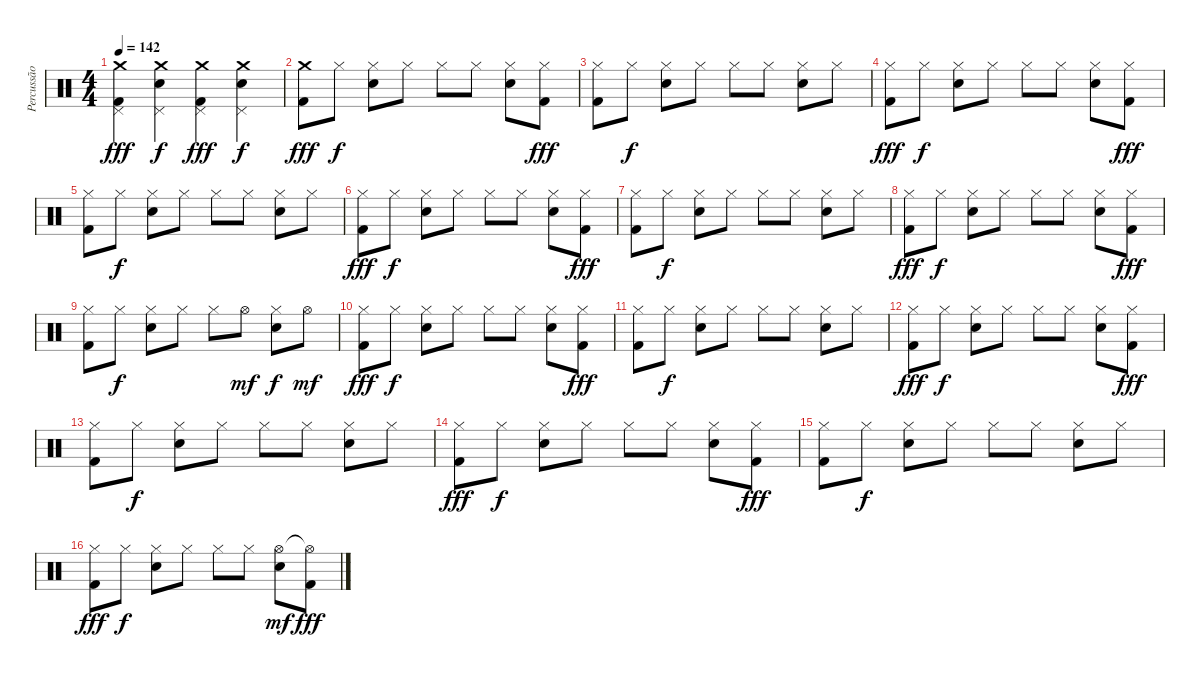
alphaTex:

\track ("Percussão" "Percussão") {instrument percussion}
\staff {score}
\articulation defaults
\ts (4 4)
\tempo 142
\clef neutral
\ks c
("Crash medium (hit)" "Pedal Hi-Hat (hit)" "Kick (hit) 2").4{dy fff} ("Crash medium (hit)" "Pedal Hi-Hat (hit)" "Electric Snare (hit)").4{dy f} ("Crash medium (hit)" "Pedal Hi-Hat (hit)" "Kick (hit) 2").4{dy fff} ("Crash medium (hit)" "Pedal Hi-Hat (hit)" "Electric Snare (hit)").4{dy f} |
("Crash medium (hit)" "Kick (hit) 2").8{dy fff} "Hi-Hat (closed)".8{dy f} ("Hi-Hat (closed)" "Electric Snare (hit)").8 "Hi-Hat (closed)".8 "Hi-Hat (closed)".8 "Hi-Hat (closed)".8 ("Hi-Hat (closed)" "Electric Snare (hit)").8 ("Hi-Hat (closed)" "Kick (hit) 2").8{dy fff} |
("Hi-Hat (closed)" "Kick (hit) 2").8 "Hi-Hat (closed)".8{dy f} ("Hi-Hat (closed)" "Electric Snare (hit)").8 "Hi-Hat (closed)".8 "Hi-Hat (closed)".8 "Hi-Hat (closed)".8 ("Hi-Hat (closed)" "Electric Snare (hit)").8 "Hi-Hat (closed)".8 |
("Hi-Hat (closed)" "Kick (hit) 2").8{dy fff} "Hi-Hat (closed)".8{dy f} ("Hi-Hat (closed)" "Electric Snare (hit)").8 "Hi-Hat (closed)".8 "Hi-Hat (closed)".8 "Hi-Hat (closed)".8 ("Hi-Hat (closed)" "Electric Snare (hit)").8 ("Hi-Hat (closed)" "Kick (hit) 2").8{dy fff} |
("Hi-Hat (closed)" "Kick (hit) 2").8 "Hi-Hat (closed)".8{dy f} ("Hi-Hat (closed)" "Electric Snare (hit)").8 "Hi-Hat (closed)".8 "Hi-Hat (closed)".8 "Hi-Hat (closed)".8 ("Hi-Hat (closed)" "Electric Snare (hit)").8 "Hi-Hat (closed)".8 |
("Hi-Hat (closed)" "Kick (hit) 2").8{dy fff} "Hi-Hat (closed)".8{dy f} ("Hi-Hat (closed)" "Electric Snare (hit)").8 "Hi-Hat (closed)".8 "Hi-Hat (closed)".8 "Hi-Hat (closed)".8 ("Hi-Hat (closed)" "Electric Snare (hit)").8 ("Hi-Hat (closed)" "Kick (hit) 2").8{dy fff} |
("Hi-Hat (closed)" "Kick (hit) 2").8 "Hi-Hat (closed)".8{dy f} ("Hi-Hat (closed)" "Electric Snare (hit)").8 "Hi-Hat (closed)".8 "Hi-Hat (closed)".8 "Hi-Hat (closed)".8 ("Hi-Hat (closed)" "Electric Snare (hit)").8 "Hi-Hat (closed)".8 |
("Hi-Hat (closed)" "Kick (hit) 2").8{dy fff} "Hi-Hat (closed)".8{dy f} ("Hi-Hat (closed)" "Electric Snare (hit)").8 "Hi-Hat (closed)".8 "Hi-Hat (closed)".8 "Hi-Hat (closed)".8 ("Hi-Hat (closed)" "Electric Snare (hit)").8 ("Hi-Hat (closed)" "Kick (hit) 2").8{dy fff} |
("Hi-Hat (closed)" "Kick (hit) 2").8 "Hi-Hat (closed)".8{dy f} ("Hi-Hat (closed)" "Electric Snare (hit)").8 "Hi-Hat (closed)".8 "Hi-Hat (closed)".8 "Hi-Hat (open)".8{dy mf} ("Hi-Hat (closed)" "Electric Snare (hit)").8{dy f} "Hi-Hat (open)".8{dy mf} |
("Hi-Hat (closed)" "Kick (hit) 2").8{dy fff} "Hi-Hat (closed)".8{dy f} ("Hi-Hat (closed)" "Electric Snare (hit)").8 "Hi-Hat (closed)".8 "Hi-Hat (closed)".8 "Hi-Hat (closed)".8 ("Hi-Hat (closed)" "Electric Snare (hit)").8 ("Hi-Hat (closed)" "Kick (hit) 2").8{dy fff} |
("Hi-Hat (closed)" "Kick (hit) 2").8 "Hi-Hat (closed)".8{dy f} ("Hi-Hat (closed)" "Electric Snare (hit)").8 "Hi-Hat (closed)".8 "Hi-Hat (closed)".8 "Hi-Hat (closed)".8 ("Hi-Hat (closed)" "Electric Snare (hit)").8 "Hi-Hat (closed)".8 |
("Hi-Hat (closed)" "Kick (hit) 2").8{dy fff} "Hi-Hat (closed)".8{dy f} ("Hi-Hat (closed)" "Electric Snare (hit)").8 "Hi-Hat (closed)".8 "Hi-Hat (closed)".8 "Hi-Hat (closed)".8 ("Hi-Hat (closed)" "Electric Snare (hit)").8 ("Hi-Hat (closed)" "Kick (hit) 2").8{dy fff} |
("Hi-Hat (closed)" "Kick (hit) 2").8 "Hi-Hat (closed)".8{dy f} ("Hi-Hat (closed)" "Electric Snare (hit)").8 "Hi-Hat (closed)".8 "Hi-Hat (closed)".8 "Hi-Hat (closed)".8 ("Hi-Hat (closed)" "Electric Snare (hit)").8 "Hi-Hat (closed)".8 |
("Hi-Hat (closed)" "Kick (hit) 2").8{dy fff} "Hi-Hat (closed)".8{dy f} ("Hi-Hat (closed)" "Electric Snare (hit)").8 "Hi-Hat (closed)".8 "Hi-Hat (closed)".8 "Hi-Hat (closed)".8 ("Hi-Hat (closed)" "Electric Snare (hit)").8 ("Hi-Hat (closed)" "Kick (hit) 2").8{dy fff} |
("Hi-Hat (closed)" "Kick (hit) 2").8 "Hi-Hat (closed)".8{dy f} ("Hi-Hat (closed)" "Electric Snare (hit)").8 "Hi-Hat (closed)".8 "Hi-Hat (closed)".8 "Hi-Hat (closed)".8 ("Hi-Hat (closed)" "Electric Snare (hit)").8 "Hi-Hat (closed)".8 |
("Hi-Hat (closed)" "Kick (hit) 2").8{dy fff} "Hi-Hat (closed)".8{dy f} ("Hi-Hat (closed)" "Electric Snare (hit)").8 "Hi-Hat (closed)".8 "Hi-Hat (closed)".8 "Hi-Hat (closed)".8 ("Hi-Hat (open)" "Electric Snare (hit)").8{dy mf} ("Hi-Hat (open)"{t} "Kick (hit) 2").8{dy fff}
